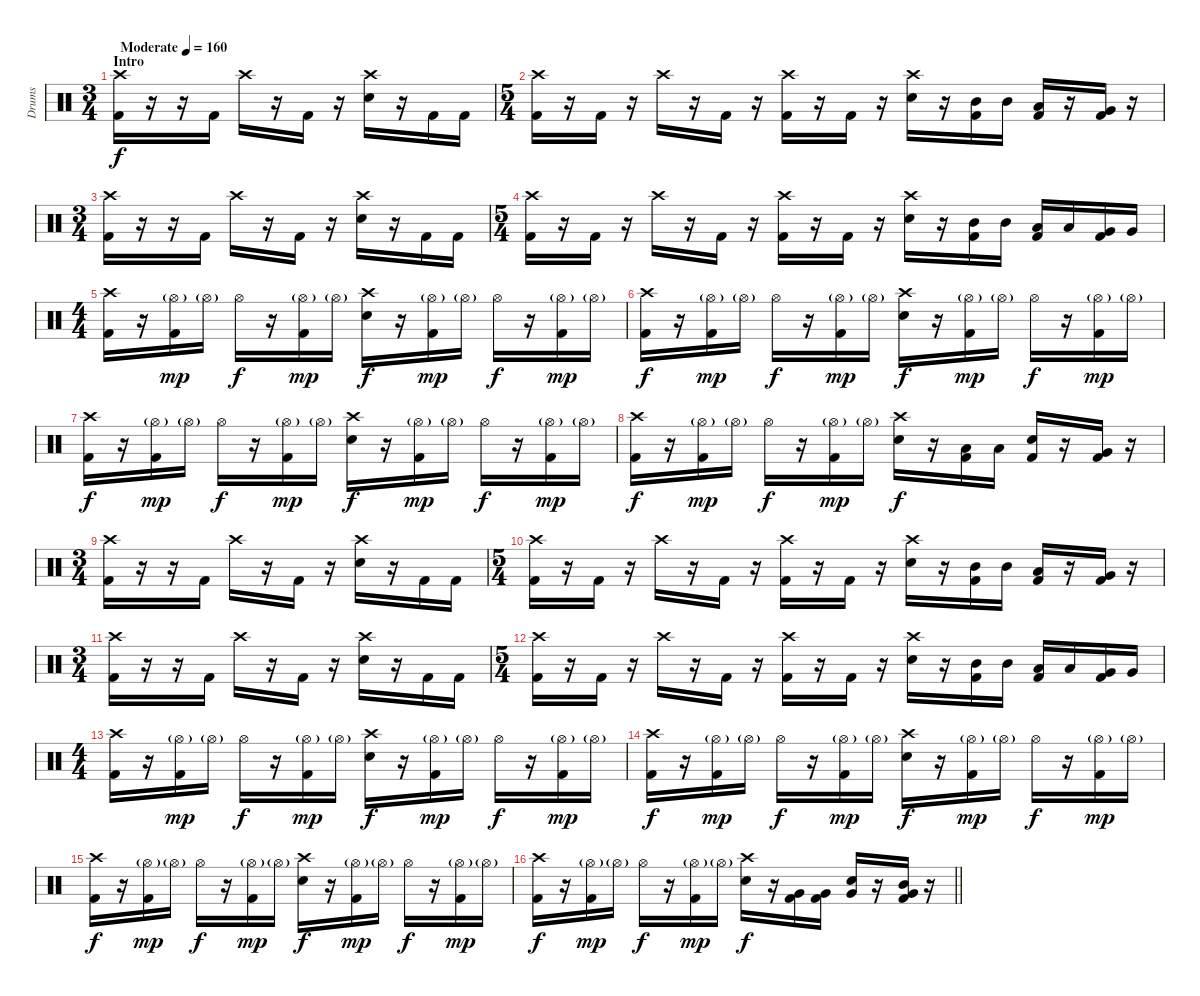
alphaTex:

\track ("Drums" "Drums") {instrument percussion}
\staff {score}
\articulation defaults
\ts (3 4)
\section ("" "Intro")
\tempo (160 "Moderate")
\clef neutral
\ks c
("Crash high (hit)" "Kick (hit) 2").16{dy f} r.16 r.16 "Kick (hit) 2".16 "Crash high (hit)".16 r.16 "Kick (hit) 2".16 r.16 ("Crash high (hit)" "Electric Snare (hit)").16 r.16 "Kick (hit) 2".16 "Kick (hit) 2".16 |
\ts (5 4)
("Crash high (hit)" "Kick (hit) 2").16 r.16 "Kick (hit) 2".16 r.16 "Crash high (hit)".16 r.16 "Kick (hit) 2".16 r.16 ("Crash high (hit)" "Kick (hit) 2").16 r.16 "Kick (hit) 2".16 r.16 ("Crash high (hit)" "Electric Snare (hit)").16 r.16 ("Mid Tom (hit)" "Kick (hit) 2").16 "Mid Tom (hit)".16 ("Low Tom (hit)" "Kick (hit) 2").16 r.16 ("Very Low Tom (hit)" "Kick (hit) 2").16 r.16 |
\ts (3 4)
("Crash high (hit)" "Kick (hit) 2").16 r.16 r.16 "Kick (hit) 2".16 "Crash high (hit)".16 r.16 "Kick (hit) 2".16 r.16 ("Crash high (hit)" "Electric Snare (hit)").16 r.16 "Kick (hit) 2".16 "Kick (hit) 2".16 |
\ts (5 4)
("Crash high (hit)" "Kick (hit) 2").16 r.16 "Kick (hit) 2".16 r.16 "Crash high (hit)".16 r.16 "Kick (hit) 2".16 r.16 ("Crash high (hit)" "Kick (hit) 2").16 r.16 "Kick (hit) 2".16 r.16 ("Crash high (hit)" "Electric Snare (hit)").16 r.16 ("Mid Tom (hit)" "Kick (hit) 2").16 "Mid Tom (hit)".16 ("Low Tom (hit)" "Kick (hit) 2").16 "Low Tom (hit)".16 ("Very Low Tom (hit)" "Kick (hit) 2").16 "Very Low Tom (hit)".16 |
\ts (4 4)
("Crash high (hit)" "Kick (hit) 2").16 r.16 ("Hi-Hat (open)"{g} "Kick (hit) 2").16{dy mp} "Hi-Hat (open)"{g}.16 "Hi-Hat (open)".16{dy f} r.16 ("Hi-Hat (open)"{g} "Kick (hit) 2").16{dy mp} "Hi-Hat (open)"{g}.16 ("Crash high (hit)" "Electric Snare (hit)").16{dy f} r.16 ("Hi-Hat (open)"{g} "Kick (hit) 2").16{dy mp} "Hi-Hat (open)"{g}.16 "Hi-Hat (open)".16{dy f} r.16 ("Hi-Hat (open)"{g} "Kick (hit) 2").16{dy mp} "Hi-Hat (open)"{g}.16 |
("Crash high (hit)" "Kick (hit) 2").16{dy f} r.16 ("Hi-Hat (open)"{g} "Kick (hit) 2").16{dy mp} "Hi-Hat (open)"{g}.16 "Hi-Hat (open)".16{dy f} r.16 ("Hi-Hat (open)"{g} "Kick (hit) 2").16{dy mp} "Hi-Hat (open)"{g}.16 ("Crash high (hit)" "Electric Snare (hit)").16{dy f} r.16 ("Hi-Hat (open)"{g} "Kick (hit) 2").16{dy mp} "Hi-Hat (open)"{g}.16 "Hi-Hat (open)".16{dy f} r.16 ("Hi-Hat (open)"{g} "Kick (hit) 2").16{dy mp} "Hi-Hat (open)"{g}.16 |
("Crash high (hit)" "Kick (hit) 2").16{dy f} r.16 ("Hi-Hat (open)"{g} "Kick (hit) 2").16{dy mp} "Hi-Hat (open)"{g}.16 "Hi-Hat (open)".16{dy f} r.16 ("Hi-Hat (open)"{g} "Kick (hit) 2").16{dy mp} "Hi-Hat (open)"{g}.16 ("Crash high (hit)" "Electric Snare (hit)").16{dy f} r.16 ("Hi-Hat (open)"{g} "Kick (hit) 2").16{dy mp} "Hi-Hat (open)"{g}.16 "Hi-Hat (open)".16{dy f} r.16 ("Hi-Hat (open)"{g} "Kick (hit) 2").16{dy mp} "Hi-Hat (open)"{g}.16 |
("Crash high (hit)" "Kick (hit) 2").16{dy f} r.16 ("Hi-Hat (open)"{g} "Kick (hit) 2").16{dy mp} "Hi-Hat (open)"{g}.16 "Hi-Hat (open)".16{dy f} r.16 ("Hi-Hat (open)"{g} "Kick (hit) 2").16{dy mp} "Hi-Hat (open)"{g}.16 ("Crash high (hit)" "Electric Snare (hit)").16{dy f} r.16 ("Low Tom (hit)" "Kick (hit) 2").16 "Low Tom (hit)".16 ("Electric Snare (hit)" "Kick (hit) 2").16 r.16 ("Very Low Tom (hit)" "Kick (hit) 2").16 r.16 |
\ts (3 4)
("Crash high (hit)" "Kick (hit) 2").16 r.16 r.16 "Kick (hit) 2".16 "Crash high (hit)".16 r.16 "Kick (hit) 2".16 r.16 ("Crash high (hit)" "Electric Snare (hit)").16 r.16 "Kick (hit) 2".16 "Kick (hit) 2".16 |
\ts (5 4)
("Crash high (hit)" "Kick (hit) 2").16 r.16 "Kick (hit) 2".16 r.16 "Crash high (hit)".16 r.16 "Kick (hit) 2".16 r.16 ("Crash high (hit)" "Kick (hit) 2").16 r.16 "Kick (hit) 2".16 r.16 ("Crash high (hit)" "Electric Snare (hit)").16 r.16 ("Mid Tom (hit)" "Kick (hit) 2").16 "Mid Tom (hit)".16 ("Low Tom (hit)" "Kick (hit) 2").16 r.16 ("Very Low Tom (hit)" "Kick (hit) 2").16 r.16 |
\ts (3 4)
("Crash high (hit)" "Kick (hit) 2").16 r.16 r.16 "Kick (hit) 2".16 "Crash high (hit)".16 r.16 "Kick (hit) 2".16 r.16 ("Crash high (hit)" "Electric Snare (hit)").16 r.16 "Kick (hit) 2".16 "Kick (hit) 2".16 |
\ts (5 4)
("Crash high (hit)" "Kick (hit) 2").16 r.16 "Kick (hit) 2".16 r.16 "Crash high (hit)".16 r.16 "Kick (hit) 2".16 r.16 ("Crash high (hit)" "Kick (hit) 2").16 r.16 "Kick (hit) 2".16 r.16 ("Crash high (hit)" "Electric Snare (hit)").16 r.16 ("Mid Tom (hit)" "Kick (hit) 2").16 "Mid Tom (hit)".16 ("Low Tom (hit)" "Kick (hit) 2").16 "Low Tom (hit)".16 ("Very Low Tom (hit)" "Kick (hit) 2").16 "Very Low Tom (hit)".16 |
\ts (4 4)
("Crash high (hit)" "Kick (hit) 2").16 r.16 ("Hi-Hat (open)"{g} "Kick (hit) 2").16{dy mp} "Hi-Hat (open)"{g}.16 "Hi-Hat (open)".16{dy f} r.16 ("Hi-Hat (open)"{g} "Kick (hit) 2").16{dy mp} "Hi-Hat (open)"{g}.16 ("Crash high (hit)" "Electric Snare (hit)").16{dy f} r.16 ("Hi-Hat (open)"{g} "Kick (hit) 2").16{dy mp} "Hi-Hat (open)"{g}.16 "Hi-Hat (open)".16{dy f} r.16 ("Hi-Hat (open)"{g} "Kick (hit) 2").16{dy mp} "Hi-Hat (open)"{g}.16 |
("Crash high (hit)" "Kick (hit) 2").16{dy f} r.16 ("Hi-Hat (open)"{g} "Kick (hit) 2").16{dy mp} "Hi-Hat (open)"{g}.16 "Hi-Hat (open)".16{dy f} r.16 ("Hi-Hat (open)"{g} "Kick (hit) 2").16{dy mp} "Hi-Hat (open)"{g}.16 ("Crash high (hit)" "Electric Snare (hit)").16{dy f} r.16 ("Hi-Hat (open)"{g} "Kick (hit) 2").16{dy mp} "Hi-Hat (open)"{g}.16 "Hi-Hat (open)".16{dy f} r.16 ("Hi-Hat (open)"{g} "Kick (hit) 2").16{dy mp} "Hi-Hat (open)"{g}.16 |
("Crash high (hit)" "Kick (hit) 2").16{dy f} r.16 ("Hi-Hat (open)"{g} "Kick (hit) 2").16{dy mp} "Hi-Hat (open)"{g}.16 "Hi-Hat (open)".16{dy f} r.16 ("Hi-Hat (open)"{g} "Kick (hit) 2").16{dy mp} "Hi-Hat (open)"{g}.16 ("Crash high (hit)" "Electric Snare (hit)").16{dy f} r.16 ("Hi-Hat (open)"{g} "Kick (hit) 2").16{dy mp} "Hi-Hat (open)"{g}.16 "Hi-Hat (open)".16{dy f} r.16 ("Hi-Hat (open)"{g} "Kick (hit) 2").16{dy mp} "Hi-Hat (open)"{g}.16 |
\barLineRight lightlight
("Crash high (hit)" "Kick (hit) 2").16{dy f} r.16 ("Hi-Hat (open)"{g} "Kick (hit) 2").16{dy mp} "Hi-Hat (open)"{g}.16 "Hi-Hat (open)".16{dy f} r.16 ("Hi-Hat (open)"{g} "Kick (hit) 2").16{dy mp} "Hi-Hat (open)"{g}.16 ("Crash high (hit)" "Electric Snare (hit)").16{dy f} r.16 ("Very Low Tom (hit)" "Kick (hit) 2").16 ("Very Low Tom (hit)" "Kick (hit) 2").16 ("Very Low Tom (hit)" "Electric Snare (hit)").16 r.16 ("Very Low Tom (hit)" "Mid Tom (hit)" "Kick (hit) 2").16 r.16
